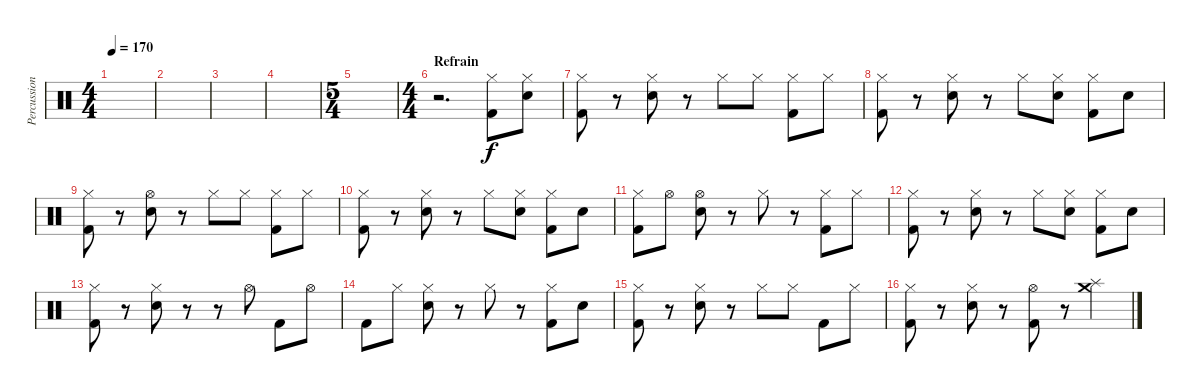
\track ("Percussion" "Percussion") {instrument percussion}
\staff {score}
\articulation defaults
\ts (4 4)
\tempo 170
\clef neutral
\ks c
|
|
|
|
\ts (5 4)
|
\ts (4 4)
\section ("" "Refrain")
r.2{d} ("Hi-Hat (closed)" "Kick (hit) 2").8{volume 11} ("Hi-Hat (closed)" "Electric Snare (hit)").8 |
("Hi-Hat (closed)" "Kick (hit) 2").8 r.8 ("Hi-Hat (closed)" "Electric Snare (hit)").8 r.8 "Hi-Hat (closed)".8 "Hi-Hat (closed)".8 ("Hi-Hat (closed)" "Kick (hit) 2").8 "Hi-Hat (closed)".8 |
("Hi-Hat (closed)" "Kick (hit) 2").8 r.8 ("Hi-Hat (closed)" "Electric Snare (hit)").8 r.8 "Hi-Hat (closed)".8 ("Hi-Hat (closed)" "Electric Snare (hit)").8 ("Hi-Hat (closed)" "Kick (hit) 2").8 "Electric Snare (hit)".8 |
("Hi-Hat (closed)" "Kick (hit) 2").8 r.8 ("Hi-Hat (open)" "Electric Snare (hit)").8 r.8 "Hi-Hat (closed)".8 "Hi-Hat (closed)".8 ("Hi-Hat (closed)" "Kick (hit) 2").8 "Hi-Hat (closed)".8 |
("Hi-Hat (closed)" "Kick (hit) 2").8 r.8 ("Hi-Hat (closed)" "Electric Snare (hit)").8 r.8 "Hi-Hat (closed)".8 ("Hi-Hat (closed)" "Electric Snare (hit)").8 ("Hi-Hat (closed)" "Kick (hit) 2").8 "Electric Snare (hit)".8 |
("Hi-Hat (closed)" "Kick (hit) 2").8 "Hi-Hat (open)".8 ("Hi-Hat (open)" "Electric Snare (hit)").8 r.8 "Hi-Hat (closed)".8 r.8 ("Hi-Hat (closed)" "Kick (hit) 2").8 "Hi-Hat (closed)".8 |
("Hi-Hat (closed)" "Kick (hit) 2").8 r.8 ("Hi-Hat (closed)" "Electric Snare (hit)").8 r.8 "Hi-Hat (closed)".8 ("Hi-Hat (closed)" "Electric Snare (hit)").8 ("Hi-Hat (closed)" "Kick (hit) 2").8 "Electric Snare (hit)".8 |
("Hi-Hat (closed)" "Kick (hit) 2").8 r.8 ("Hi-Hat (closed)" "Electric Snare (hit)").8 r.8 r.8 "Hi-Hat (open)".8 "Kick (hit) 2".8 "Hi-Hat (open)".8 |
"Kick (hit) 2".8 "Hi-Hat (closed)".8 ("Hi-Hat (closed)" "Electric Snare (hit)").8 r.8 "Hi-Hat (closed)".8 r.8 ("Hi-Hat (closed)" "Kick (hit) 2").8 "Electric Snare (hit)".8 |
("Hi-Hat (closed)" "Kick (hit) 2").8 r.8 ("Hi-Hat (closed)" "Electric Snare (hit)").8 r.8 "Hi-Hat (closed)".8 "Hi-Hat (closed)".8 "Kick (hit) 2".8 "Hi-Hat (closed)".8 |
("Hi-Hat (closed)" "Kick (hit) 2").8 r.8 ("Hi-Hat (closed)" "Electric Snare (hit)").8 r.8 ("Hi-Hat (open)" "Kick (hit) 2").8 r.8 ("Crash medium (hit)" "Splash (hit)").4
